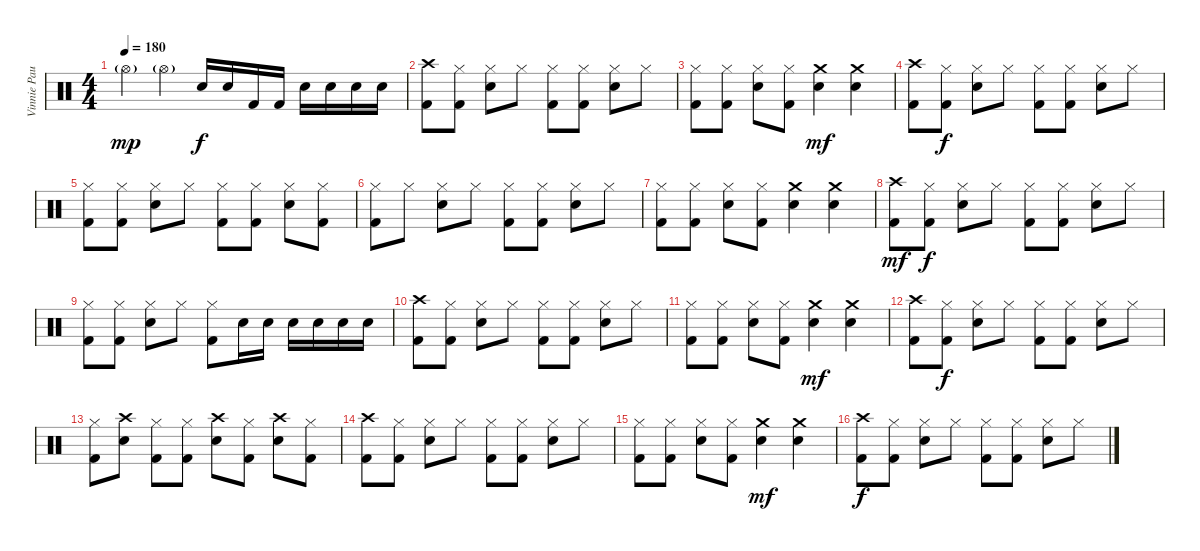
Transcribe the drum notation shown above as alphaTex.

\track ("Vinnie Paul" "Vinnie Pau") {instrument percussion}
\staff {score}
\articulation defaults
\ts (4 4)
\tempo 180
\clef neutral
\ks c "Hi-Hat (open)"{g}.4{dy mp} "Hi-Hat (open)"{g}.4 "Electric Snare (hit)".16{dy f} "Electric Snare (hit)".16 "Kick (hit) 2".16 "Kick (hit) 2".16 "Electric Snare (hit)".16 "Electric Snare (hit)".16 "Electric Snare (hit)".16 "Electric Snare (hit)".16
|
("Crash high (hit)" "Kick (hit) 2").8 ("Hi-Hat (closed)" "Kick (hit) 2").8 ("Hi-Hat (closed)" "Electric Snare (hit)").8 "Hi-Hat (closed)".8 ("Hi-Hat (closed)" "Kick (hit) 2").8 ("Hi-Hat (closed)" "Kick (hit) 2").8 ("Hi-Hat (closed)" "Electric Snare (hit)").8 "Hi-Hat (closed)".8 |
("Hi-Hat (closed)" "Kick (hit) 2").8 ("Hi-Hat (closed)" "Kick (hit) 2").8 ("Hi-Hat (closed)" "Electric Snare (hit)").8 ("Hi-Hat (closed)" "Kick (hit) 2").8 ("Crash medium (hit)" "Electric Snare (hit)").4{dy mf} ("Crash medium (hit)" "Electric Snare (hit)").4 |
("Crash high (hit)" "Kick (hit) 2").8 ("Hi-Hat (closed)" "Kick (hit) 2").8{dy f} ("Hi-Hat (closed)" "Electric Snare (hit)").8 "Hi-Hat (closed)".8 ("Hi-Hat (closed)" "Kick (hit) 2").8 ("Hi-Hat (closed)" "Kick (hit) 2").8 ("Hi-Hat (closed)" "Electric Snare (hit)").8 "Hi-Hat (closed)".8 |
("Hi-Hat (closed)" "Kick (hit) 2").8 ("Hi-Hat (closed)" "Kick (hit) 2").8 ("Hi-Hat (closed)" "Electric Snare (hit)").8 "Hi-Hat (closed)".8 ("Hi-Hat (closed)" "Kick (hit) 2").8 ("Hi-Hat (closed)" "Kick (hit) 2").8 ("Hi-Hat (closed)" "Electric Snare (hit)").8 ("Hi-Hat (closed)" "Kick (hit) 2").8 |
("Hi-Hat (closed)" "Kick (hit) 2").8 "Hi-Hat (closed)".8 ("Hi-Hat (closed)" "Electric Snare (hit)").8 "Hi-Hat (closed)".8 ("Hi-Hat (closed)" "Kick (hit) 2").8 ("Hi-Hat (closed)" "Kick (hit) 2").8 ("Hi-Hat (closed)" "Electric Snare (hit)").8 "Hi-Hat (closed)".8 |
("Hi-Hat (closed)" "Kick (hit) 2").8 ("Hi-Hat (closed)" "Kick (hit) 2").8 ("Hi-Hat (closed)" "Electric Snare (hit)").8 ("Hi-Hat (closed)" "Kick (hit) 2").8 ("Crash medium (hit)" "Electric Snare (hit)").4 ("Crash medium (hit)" "Electric Snare (hit)").4 |
("Crash high (hit)" "Kick (hit) 2").8{dy mf} ("Hi-Hat (closed)" "Kick (hit) 2").8{dy f} ("Hi-Hat (closed)" "Electric Snare (hit)").8 "Hi-Hat (closed)".8 ("Hi-Hat (closed)" "Kick (hit) 2").8 ("Hi-Hat (closed)" "Kick (hit) 2").8 ("Hi-Hat (closed)" "Electric Snare (hit)").8 "Hi-Hat (closed)".8 |
("Hi-Hat (closed)" "Kick (hit) 2").8 ("Hi-Hat (closed)" "Kick (hit) 2").8 ("Hi-Hat (closed)" "Electric Snare (hit)").8 "Hi-Hat (closed)".8 ("Hi-Hat (closed)" "Kick (hit) 2").8 "Electric Snare (hit)".16 "Electric Snare (hit)".16 "Electric Snare (hit)".16 "Electric Snare (hit)".16 "Electric Snare (hit)".16 "Electric Snare (hit)".16 |
("Crash high (hit)" "Kick (hit) 2").8 ("Hi-Hat (closed)" "Kick (hit) 2").8 ("Hi-Hat (closed)" "Electric Snare (hit)").8 "Hi-Hat (closed)".8 ("Hi-Hat (closed)" "Kick (hit) 2").8 ("Hi-Hat (closed)" "Kick (hit) 2").8 ("Hi-Hat (closed)" "Electric Snare (hit)").8 "Hi-Hat (closed)".8 |
("Hi-Hat (closed)" "Kick (hit) 2").8 ("Hi-Hat (closed)" "Kick (hit) 2").8 ("Hi-Hat (closed)" "Electric Snare (hit)").8 ("Hi-Hat (closed)" "Kick (hit) 2").8 ("Crash medium (hit)" "Electric Snare (hit)").4{dy mf} ("Crash medium (hit)" "Electric Snare (hit)").4 |
("Crash high (hit)" "Kick (hit) 2").8 ("Hi-Hat (closed)" "Kick (hit) 2").8{dy f} ("Hi-Hat (closed)" "Electric Snare (hit)").8 "Hi-Hat (closed)".8 ("Hi-Hat (closed)" "Kick (hit) 2").8 ("Hi-Hat (closed)" "Kick (hit) 2").8 ("Hi-Hat (closed)" "Electric Snare (hit)").8 "Hi-Hat (closed)".8 |
("Hi-Hat (closed)" "Kick (hit) 2").8 ("Crash high (hit)" "Electric Snare (hit)").8 ("Hi-Hat (closed)" "Kick (hit) 2").8 ("Hi-Hat (closed)" "Kick (hit) 2").8 ("Crash high (hit)" "Electric Snare (hit)").8 ("Hi-Hat (closed)" "Kick (hit) 2").8 ("Crash high (hit)" "Electric Snare (hit)").8 ("Hi-Hat (closed)" "Kick (hit) 2").8 |
("Crash high (hit)" "Kick (hit) 2").8 ("Hi-Hat (closed)" "Kick (hit) 2").8 ("Hi-Hat (closed)" "Electric Snare (hit)").8 "Hi-Hat (closed)".8 ("Hi-Hat (closed)" "Kick (hit) 2").8 ("Hi-Hat (closed)" "Kick (hit) 2").8 ("Hi-Hat (closed)" "Electric Snare (hit)").8 "Hi-Hat (closed)".8 |
("Hi-Hat (closed)" "Kick (hit) 2").8 ("Hi-Hat (closed)" "Kick (hit) 2").8 ("Hi-Hat (closed)" "Electric Snare (hit)").8 ("Hi-Hat (closed)" "Kick (hit) 2").8 ("Crash medium (hit)" "Electric Snare (hit)").4{dy mf} ("Crash medium (hit)" "Electric Snare (hit)").4 |
("Crash high (hit)" "Kick (hit) 2").8{dy f} ("Hi-Hat (closed)" "Kick (hit) 2").8 ("Hi-Hat (closed)" "Electric Snare (hit)").8 "Hi-Hat (closed)".8 ("Hi-Hat (closed)" "Kick (hit) 2").8 ("Hi-Hat (closed)" "Kick (hit) 2").8 ("Hi-Hat (closed)" "Electric Snare (hit)").8 "Hi-Hat (closed)".8
